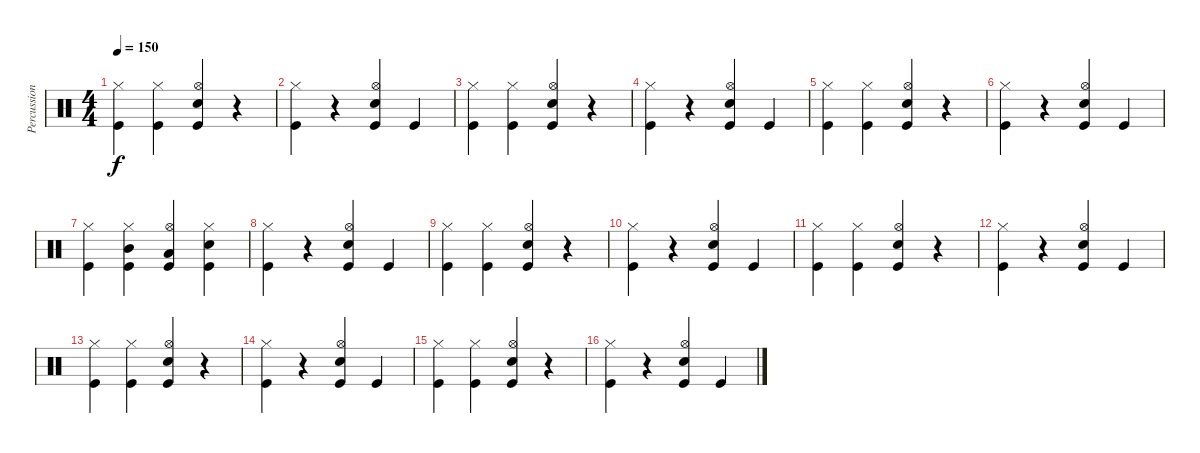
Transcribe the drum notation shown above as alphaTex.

\track ("Percussion" "Percussion") {instrument percussion}
\staff {score}
\articulation defaults
\ts (4 4)
\tempo 150
\clef neutral
\ks c
("Hi-Hat (closed)" "Kick (hit)").4{dy f} ("Hi-Hat (closed)" "Kick (hit)").4 ("Hi-Hat (open)" "Kick (hit)" "Electric Snare (hit)").4 r.4 |
("Hi-Hat (closed)" "Kick (hit)").4 r.4 ("Hi-Hat (open)" "Kick (hit)" "Electric Snare (hit)").4 "Kick (hit)".4 |
("Hi-Hat (closed)" "Kick (hit)").4 ("Hi-Hat (closed)" "Kick (hit)").4 ("Hi-Hat (open)" "Kick (hit)" "Electric Snare (hit)").4 r.4 |
("Hi-Hat (closed)" "Kick (hit)").4 r.4 ("Hi-Hat (open)" "Kick (hit)" "Electric Snare (hit)").4 "Kick (hit)".4 |
("Hi-Hat (closed)" "Kick (hit)").4 ("Hi-Hat (closed)" "Kick (hit)").4 ("Hi-Hat (open)" "Kick (hit)" "Electric Snare (hit)").4 r.4 |
("Hi-Hat (closed)" "Kick (hit)").4 r.4 ("Hi-Hat (open)" "Kick (hit)" "Electric Snare (hit)").4 "Kick (hit)".4 |
("Hi-Hat (closed)" "Kick (hit)").4 ("Hi-Hat (closed)" "Kick (hit)" "Mid Tom (hit)").4 ("Hi-Hat (open)" "Kick (hit)" "Low Tom (hit)").4 ("Hi-Hat (closed)" "Kick (hit)" "Electric Snare (hit)").4 |
("Hi-Hat (closed)" "Kick (hit)").4 r.4 ("Hi-Hat (open)" "Kick (hit)" "Electric Snare (hit)").4 "Kick (hit)".4 |
("Hi-Hat (closed)" "Kick (hit)").4 ("Hi-Hat (closed)" "Kick (hit)").4 ("Hi-Hat (open)" "Kick (hit)" "Electric Snare (hit)").4 r.4 |
("Hi-Hat (closed)" "Kick (hit)").4 r.4 ("Hi-Hat (open)" "Kick (hit)" "Electric Snare (hit)").4 "Kick (hit)".4 |
("Hi-Hat (closed)" "Kick (hit)").4 ("Hi-Hat (closed)" "Kick (hit)").4 ("Hi-Hat (open)" "Kick (hit)" "Electric Snare (hit)").4 r.4 |
("Hi-Hat (closed)" "Kick (hit)").4 r.4 ("Hi-Hat (open)" "Kick (hit)" "Electric Snare (hit)").4 "Kick (hit)".4 |
("Hi-Hat (closed)" "Kick (hit)").4 ("Hi-Hat (closed)" "Kick (hit)").4 ("Hi-Hat (open)" "Kick (hit)" "Electric Snare (hit)").4 r.4 |
("Hi-Hat (closed)" "Kick (hit)").4 r.4 ("Hi-Hat (open)" "Kick (hit)" "Electric Snare (hit)").4 "Kick (hit)".4 |
("Hi-Hat (closed)" "Kick (hit)").4 ("Hi-Hat (closed)" "Kick (hit)").4 ("Hi-Hat (open)" "Kick (hit)" "Electric Snare (hit)").4 r.4 |
("Hi-Hat (closed)" "Kick (hit)").4 r.4 ("Hi-Hat (open)" "Kick (hit)" "Electric Snare (hit)").4 "Kick (hit)".4
